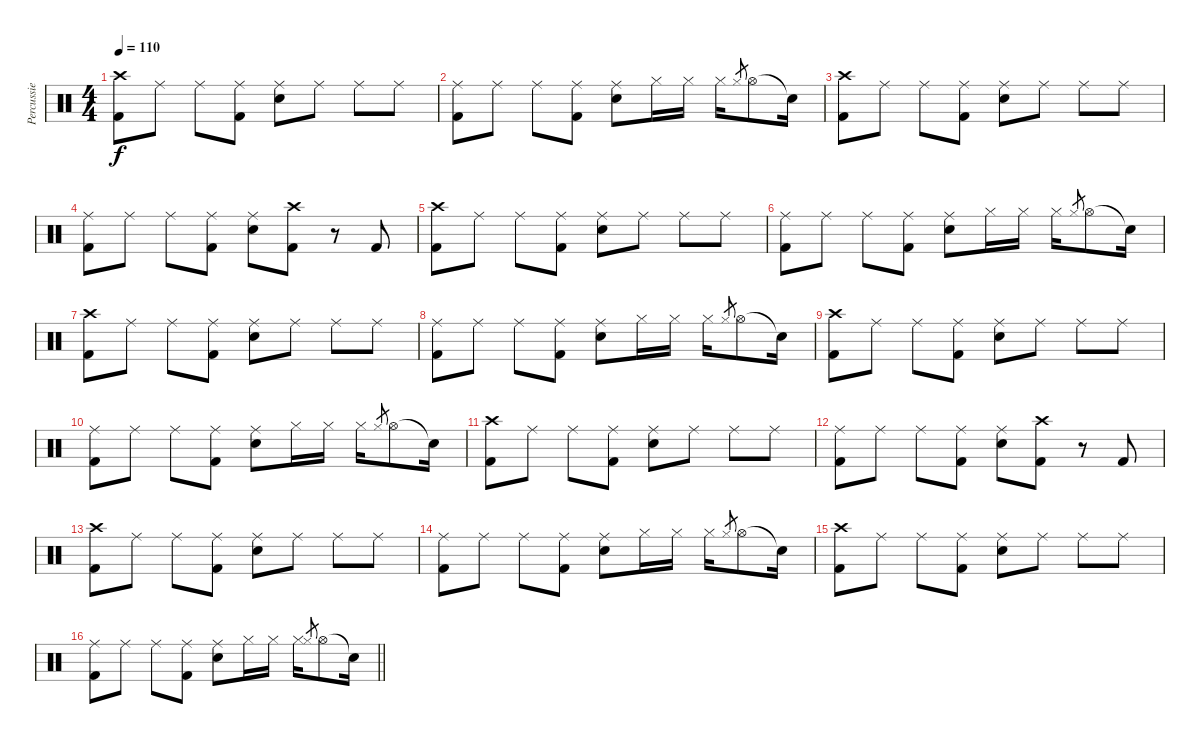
\track ("Percussie" "Percussie") {instrument percussion}
\staff {score}
\articulation defaults
\ts (4 4)
\tempo 110
\clef neutral
\ks c
("Crash high (hit)" "Kick (hit) 2").8{dy f} "Ride (middle)".8 "Ride (middle)".8 ("Ride (middle)" "Kick (hit) 2").8 ("Ride (middle)" "Electric Snare (hit)").8 "Ride (middle)".8 "Ride (middle)".8 "Ride (middle)".8 |
("Ride (middle)" "Kick (hit) 2").8 "Ride (middle)".8 "Ride (middle)".8 ("Ride (middle)" "Kick (hit) 2").8 ("Ride (middle)" "Electric Snare (hit)").8 "Hi-Hat (closed)".16 "Hi-Hat (closed)".16 "Hi-Hat (closed)".16 "Hi-Hat (closed)"{sl x}.8{gr} "Hi-Hat (open)".8 "Snare (hit)"{t}.16 |
("Crash high (hit)" "Kick (hit) 2").8 "Ride (middle)".8 "Ride (middle)".8 ("Ride (middle)" "Kick (hit) 2").8 ("Ride (middle)" "Electric Snare (hit)").8 "Ride (middle)".8 "Ride (middle)".8 "Ride (middle)".8 |
("Ride (middle)" "Kick (hit) 2").8 "Ride (middle)".8 "Ride (middle)".8 ("Ride (middle)" "Kick (hit) 2").8 ("Ride (middle)" "Electric Snare (hit)").8 ("Crash high (hit)" "Kick (hit) 2").8 r.8 "Kick (hit) 2".8 |
("Crash high (hit)" "Kick (hit) 2").8 "Ride (middle)".8 "Ride (middle)".8 ("Ride (middle)" "Kick (hit) 2").8 ("Ride (middle)" "Electric Snare (hit)").8 "Ride (middle)".8 "Ride (middle)".8 "Ride (middle)".8 |
("Ride (middle)" "Kick (hit) 2").8 "Ride (middle)".8 "Ride (middle)".8 ("Ride (middle)" "Kick (hit) 2").8 ("Ride (middle)" "Electric Snare (hit)").8 "Hi-Hat (closed)".16 "Hi-Hat (closed)".16 "Hi-Hat (closed)".16 "Hi-Hat (closed)"{sl x}.8{gr} "Hi-Hat (open)".8 "Snare (hit)"{t}.16 |
("Crash high (hit)" "Kick (hit) 2").8 "Ride (middle)".8 "Ride (middle)".8 ("Ride (middle)" "Kick (hit) 2").8 ("Ride (middle)" "Electric Snare (hit)").8 "Ride (middle)".8 "Ride (middle)".8 "Ride (middle)".8 |
("Ride (middle)" "Kick (hit) 2").8 "Ride (middle)".8 "Ride (middle)".8 ("Ride (middle)" "Kick (hit) 2").8 ("Ride (middle)" "Electric Snare (hit)").8 "Hi-Hat (closed)".16 "Hi-Hat (closed)".16 "Hi-Hat (closed)".16 "Hi-Hat (closed)"{sl x}.8{gr} "Hi-Hat (open)".8 "Snare (hit)"{t}.16 |
("Crash high (hit)" "Kick (hit) 2").8 "Ride (middle)".8 "Ride (middle)".8 ("Ride (middle)" "Kick (hit) 2").8 ("Ride (middle)" "Electric Snare (hit)").8 "Ride (middle)".8 "Ride (middle)".8 "Ride (middle)".8 |
("Ride (middle)" "Kick (hit) 2").8 "Ride (middle)".8 "Ride (middle)".8 ("Ride (middle)" "Kick (hit) 2").8 ("Ride (middle)" "Electric Snare (hit)").8 "Hi-Hat (closed)".16 "Hi-Hat (closed)".16 "Hi-Hat (closed)".16 "Hi-Hat (closed)"{sl x}.8{gr} "Hi-Hat (open)".8 "Snare (hit)"{t}.16 |
("Crash high (hit)" "Kick (hit) 2").8 "Ride (middle)".8 "Ride (middle)".8 ("Ride (middle)" "Kick (hit) 2").8 ("Ride (middle)" "Electric Snare (hit)").8 "Ride (middle)".8 "Ride (middle)".8 "Ride (middle)".8 |
("Ride (middle)" "Kick (hit) 2").8 "Ride (middle)".8 "Ride (middle)".8 ("Ride (middle)" "Kick (hit) 2").8 ("Ride (middle)" "Electric Snare (hit)").8 ("Crash high (hit)" "Kick (hit) 2").8 r.8 "Kick (hit) 2".8 |
("Crash high (hit)" "Kick (hit) 2").8 "Ride (middle)".8 "Ride (middle)".8 ("Ride (middle)" "Kick (hit) 2").8 ("Ride (middle)" "Electric Snare (hit)").8 "Ride (middle)".8 "Ride (middle)".8 "Ride (middle)".8 |
("Ride (middle)" "Kick (hit) 2").8 "Ride (middle)".8 "Ride (middle)".8 ("Ride (middle)" "Kick (hit) 2").8 ("Ride (middle)" "Electric Snare (hit)").8 "Hi-Hat (closed)".16 "Hi-Hat (closed)".16 "Hi-Hat (closed)".16 "Hi-Hat (closed)"{sl x}.8{gr} "Hi-Hat (open)".8 "Snare (hit)"{t}.16 |
("Crash high (hit)" "Kick (hit) 2").8 "Ride (middle)".8 "Ride (middle)".8 ("Ride (middle)" "Kick (hit) 2").8 ("Ride (middle)" "Electric Snare (hit)").8 "Ride (middle)".8 "Ride (middle)".8 "Ride (middle)".8 |
\barLineRight lightlight
("Ride (middle)" "Kick (hit) 2").8 "Ride (middle)".8 "Ride (middle)".8 ("Ride (middle)" "Kick (hit) 2").8 ("Ride (middle)" "Electric Snare (hit)").8 "Hi-Hat (closed)".16 "Hi-Hat (closed)".16 "Hi-Hat (closed)".16 "Hi-Hat (closed)"{sl x}.8{gr} "Hi-Hat (open)".8 "Snare (hit)"{t}.16
